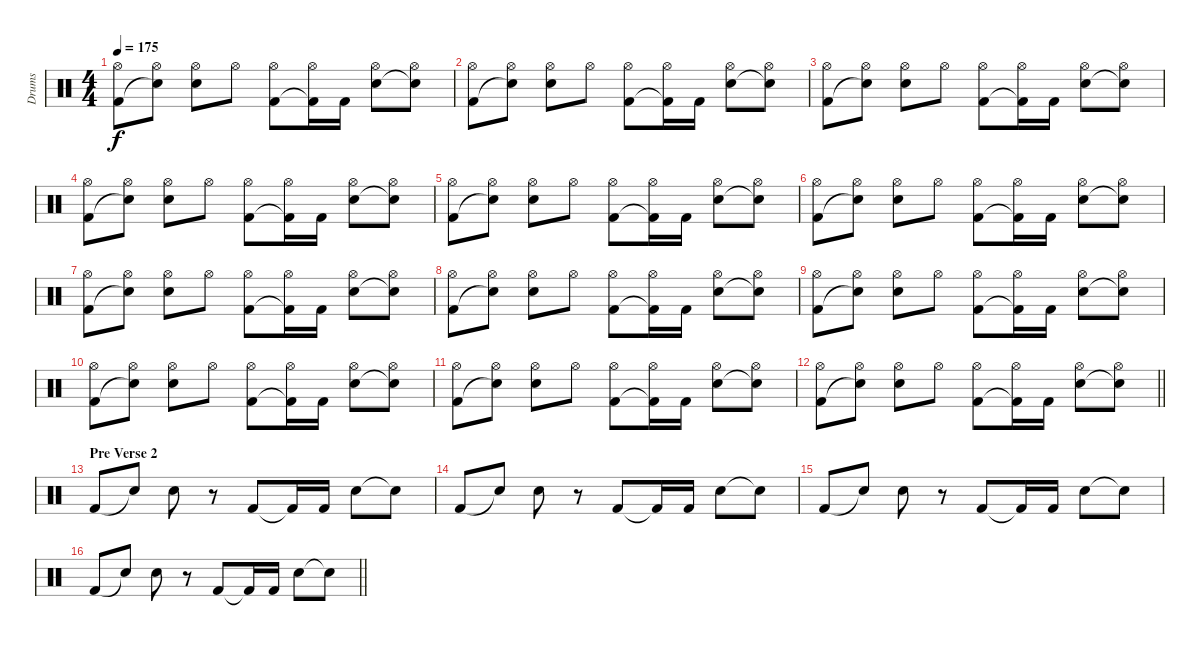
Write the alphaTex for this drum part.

\track ("Drums" "Drums") {instrument percussion}
\staff {score}
\articulation defaults
\ts (4 4)
\tempo 175
\clef neutral
\ks c
("Hi-Hat (open)" "Kick (hit) 2").8{dy f} ("Hi-Hat (open)" "Snare (hit)"{t}).8 ("Hi-Hat (open)" "Electric Snare (hit)").8 "Hi-Hat (open)".8 ("Hi-Hat (open)" "Kick (hit) 2").8 ("Hi-Hat (open)" "Kick (hit) 2"{t}).16 "Kick (hit) 2".16 ("Hi-Hat (open)" "Electric Snare (hit)").8 ("Hi-Hat (open)" "Snare (hit)"{t}).8 |
("Hi-Hat (open)" "Kick (hit) 2").8 ("Hi-Hat (open)" "Snare (hit)"{t}).8 ("Hi-Hat (open)" "Electric Snare (hit)").8 "Hi-Hat (open)".8 ("Hi-Hat (open)" "Kick (hit) 2").8 ("Hi-Hat (open)" "Kick (hit) 2"{t}).16 "Kick (hit) 2".16 ("Hi-Hat (open)" "Electric Snare (hit)").8 ("Hi-Hat (open)" "Snare (hit)"{t}).8 |
("Hi-Hat (open)" "Kick (hit) 2").8 ("Hi-Hat (open)" "Snare (hit)"{t}).8 ("Hi-Hat (open)" "Electric Snare (hit)").8 "Hi-Hat (open)".8 ("Hi-Hat (open)" "Kick (hit) 2").8 ("Hi-Hat (open)" "Kick (hit) 2"{t}).16 "Kick (hit) 2".16 ("Hi-Hat (open)" "Electric Snare (hit)").8 ("Hi-Hat (open)" "Snare (hit)"{t}).8 |
("Hi-Hat (open)" "Kick (hit) 2").8 ("Hi-Hat (open)" "Snare (hit)"{t}).8 ("Hi-Hat (open)" "Electric Snare (hit)").8 "Hi-Hat (open)".8 ("Hi-Hat (open)" "Kick (hit) 2").8 ("Hi-Hat (open)" "Kick (hit) 2"{t}).16 "Kick (hit) 2".16 ("Hi-Hat (open)" "Electric Snare (hit)").8 ("Hi-Hat (open)" "Snare (hit)"{t}).8 |
("Hi-Hat (open)" "Kick (hit) 2").8 ("Hi-Hat (open)" "Snare (hit)"{t}).8 ("Hi-Hat (open)" "Electric Snare (hit)").8 "Hi-Hat (open)".8 ("Hi-Hat (open)" "Kick (hit) 2").8 ("Hi-Hat (open)" "Kick (hit) 2"{t}).16 "Kick (hit) 2".16 ("Hi-Hat (open)" "Electric Snare (hit)").8 ("Hi-Hat (open)" "Snare (hit)"{t}).8 |
("Hi-Hat (open)" "Kick (hit) 2").8 ("Hi-Hat (open)" "Snare (hit)"{t}).8 ("Hi-Hat (open)" "Electric Snare (hit)").8 "Hi-Hat (open)".8 ("Hi-Hat (open)" "Kick (hit) 2").8 ("Hi-Hat (open)" "Kick (hit) 2"{t}).16 "Kick (hit) 2".16 ("Hi-Hat (open)" "Electric Snare (hit)").8 ("Hi-Hat (open)" "Snare (hit)"{t}).8 |
("Hi-Hat (open)" "Kick (hit) 2").8 ("Hi-Hat (open)" "Snare (hit)"{t}).8 ("Hi-Hat (open)" "Electric Snare (hit)").8 "Hi-Hat (open)".8 ("Hi-Hat (open)" "Kick (hit) 2").8 ("Hi-Hat (open)" "Kick (hit) 2"{t}).16 "Kick (hit) 2".16 ("Hi-Hat (open)" "Electric Snare (hit)").8 ("Hi-Hat (open)" "Snare (hit)"{t}).8 |
("Hi-Hat (open)" "Kick (hit) 2").8 ("Hi-Hat (open)" "Snare (hit)"{t}).8 ("Hi-Hat (open)" "Electric Snare (hit)").8 "Hi-Hat (open)".8 ("Hi-Hat (open)" "Kick (hit) 2").8 ("Hi-Hat (open)" "Kick (hit) 2"{t}).16 "Kick (hit) 2".16 ("Hi-Hat (open)" "Electric Snare (hit)").8 ("Hi-Hat (open)" "Snare (hit)"{t}).8 |
("Hi-Hat (open)" "Kick (hit) 2").8 ("Hi-Hat (open)" "Snare (hit)"{t}).8 ("Hi-Hat (open)" "Electric Snare (hit)").8 "Hi-Hat (open)".8 ("Hi-Hat (open)" "Kick (hit) 2").8 ("Hi-Hat (open)" "Kick (hit) 2"{t}).16 "Kick (hit) 2".16 ("Hi-Hat (open)" "Electric Snare (hit)").8 ("Hi-Hat (open)" "Snare (hit)"{t}).8 |
("Hi-Hat (open)" "Kick (hit) 2").8 ("Hi-Hat (open)" "Snare (hit)"{t}).8 ("Hi-Hat (open)" "Electric Snare (hit)").8 "Hi-Hat (open)".8 ("Hi-Hat (open)" "Kick (hit) 2").8 ("Hi-Hat (open)" "Kick (hit) 2"{t}).16 "Kick (hit) 2".16 ("Hi-Hat (open)" "Electric Snare (hit)").8 ("Hi-Hat (open)" "Snare (hit)"{t}).8 |
("Hi-Hat (open)" "Kick (hit) 2").8 ("Hi-Hat (open)" "Snare (hit)"{t}).8 ("Hi-Hat (open)" "Electric Snare (hit)").8 "Hi-Hat (open)".8 ("Hi-Hat (open)" "Kick (hit) 2").8 ("Hi-Hat (open)" "Kick (hit) 2"{t}).16 "Kick (hit) 2".16 ("Hi-Hat (open)" "Electric Snare (hit)").8 ("Hi-Hat (open)" "Snare (hit)"{t}).8 |
\barLineRight lightlight
("Hi-Hat (open)" "Kick (hit) 2").8 ("Hi-Hat (open)" "Snare (hit)"{t}).8 ("Hi-Hat (open)" "Electric Snare (hit)").8 "Hi-Hat (open)".8 ("Hi-Hat (open)" "Kick (hit) 2").8 ("Hi-Hat (open)" "Kick (hit) 2"{t}).16 "Kick (hit) 2".16 ("Hi-Hat (open)" "Electric Snare (hit)").8 ("Hi-Hat (open)" "Snare (hit)"{t}).8 |
\section ("" "Pre Verse 2")
"Kick (hit) 2".8 "Snare (hit)"{t}.8 "Electric Snare (hit)".8 r.8 "Kick (hit) 2".8 "Kick (hit) 2"{t}.16 "Kick (hit) 2".16 "Electric Snare (hit)".8 "Snare (hit)"{t}.8 |
"Kick (hit) 2".8 "Snare (hit)"{t}.8 "Electric Snare (hit)".8 r.8 "Kick (hit) 2".8 "Kick (hit) 2"{t}.16 "Kick (hit) 2".16 "Electric Snare (hit)".8 "Snare (hit)"{t}.8 |
"Kick (hit) 2".8 "Snare (hit)"{t}.8 "Electric Snare (hit)".8 r.8 "Kick (hit) 2".8 "Kick (hit) 2"{t}.16 "Kick (hit) 2".16 "Electric Snare (hit)".8 "Snare (hit)"{t}.8 |
\barLineRight lightlight "Kick (hit) 2".8 "Snare (hit)"{t}.8 "Electric Snare (hit)".8
r.8 "Kick (hit) 2".8 "Kick (hit) 2"{t}.16 "Kick (hit) 2".16 "Electric Snare (hit)".8 "Snare (hit)"{t}.8
